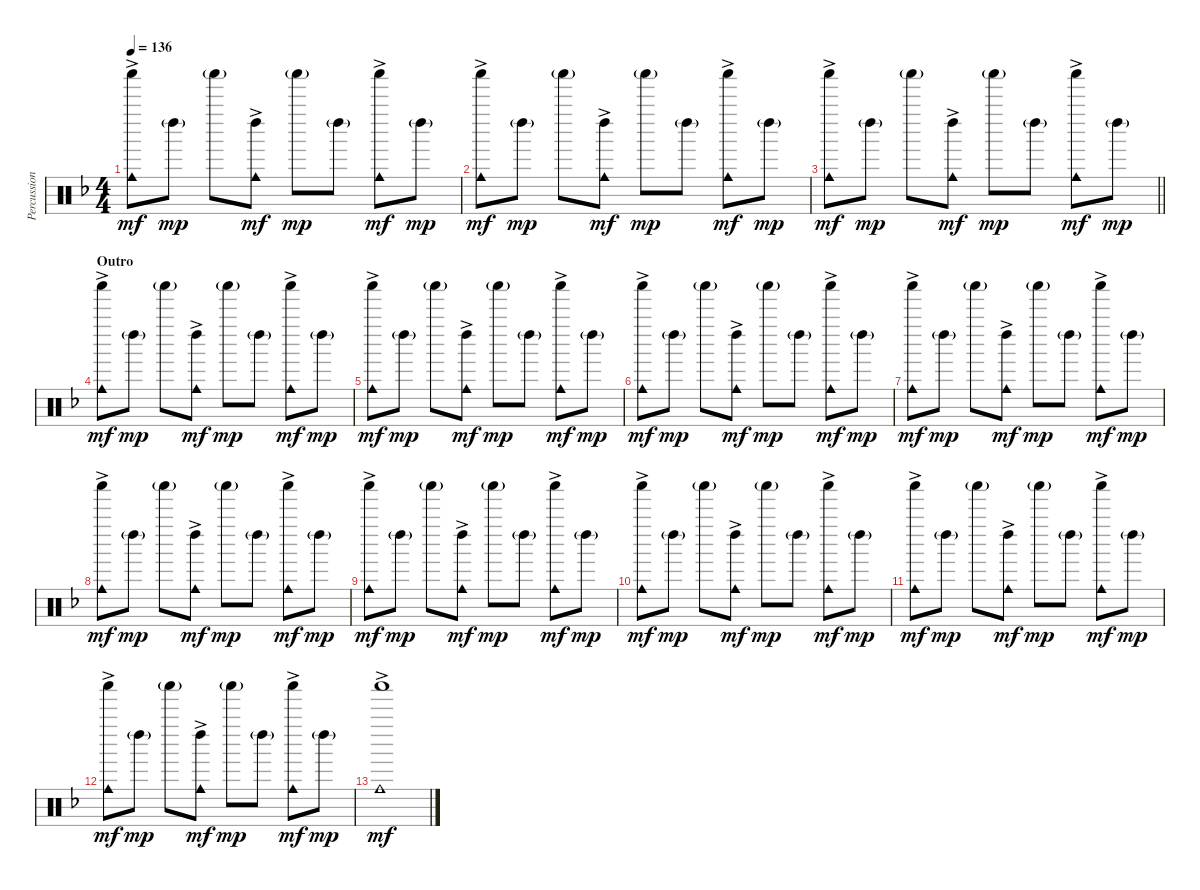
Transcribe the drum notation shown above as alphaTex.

\track ("Percussion" "Percussion") {instrument percussion}
\staff {score}
\articulation defaults
\ts (4 4)
\tempo 136
\clef neutral
\ks f
("Shaker (hit)"{ac} "Cowbell medium (hit)").8{dy mf} "Left Maraca (hit)"{g}.8{dy mp} "Shaker (hit)"{g}.8 ("Left Maraca (hit)"{ac} "Cowbell medium (hit)").8{dy mf} "Shaker (hit)"{g}.8{dy mp} "Left Maraca (hit)"{g}.8 ("Shaker (hit)"{ac} "Cowbell medium (hit)").8{dy mf} "Left Maraca (hit)"{g}.8{dy mp} |
("Shaker (hit)"{ac} "Cowbell medium (hit)").8{dy mf} "Left Maraca (hit)"{g}.8{dy mp} "Shaker (hit)"{g}.8 ("Left Maraca (hit)"{ac} "Cowbell medium (hit)").8{dy mf} "Shaker (hit)"{g}.8{dy mp} "Left Maraca (hit)"{g}.8 ("Shaker (hit)"{ac} "Cowbell medium (hit)").8{dy mf} "Left Maraca (hit)"{g}.8{dy mp} |
\barLineRight lightlight
("Shaker (hit)"{ac} "Cowbell medium (hit)").8{dy mf} "Left Maraca (hit)"{g}.8{dy mp} "Shaker (hit)"{g}.8 ("Left Maraca (hit)"{ac} "Cowbell medium (hit)").8{dy mf} "Shaker (hit)"{g}.8{dy mp} "Left Maraca (hit)"{g}.8 ("Shaker (hit)"{ac} "Cowbell medium (hit)").8{dy mf} "Left Maraca (hit)"{g}.8{dy mp} |
\section ("" "Outro")
("Shaker (hit)"{ac} "Cowbell medium (hit)").8{dy mf} "Left Maraca (hit)"{g}.8{dy mp} "Shaker (hit)"{g}.8 ("Left Maraca (hit)"{ac} "Cowbell medium (hit)").8{dy mf} "Shaker (hit)"{g}.8{dy mp} "Left Maraca (hit)"{g}.8 ("Shaker (hit)"{ac} "Cowbell medium (hit)").8{dy mf} "Left Maraca (hit)"{g}.8{dy mp} |
("Shaker (hit)"{ac} "Cowbell medium (hit)").8{dy mf} "Left Maraca (hit)"{g}.8{dy mp} "Shaker (hit)"{g}.8 ("Left Maraca (hit)"{ac} "Cowbell medium (hit)").8{dy mf} "Shaker (hit)"{g}.8{dy mp} "Left Maraca (hit)"{g}.8 ("Shaker (hit)"{ac} "Cowbell medium (hit)").8{dy mf} "Left Maraca (hit)"{g}.8{dy mp} |
("Shaker (hit)"{ac} "Cowbell medium (hit)").8{dy mf} "Left Maraca (hit)"{g}.8{dy mp} "Shaker (hit)"{g}.8 ("Left Maraca (hit)"{ac} "Cowbell medium (hit)").8{dy mf} "Shaker (hit)"{g}.8{dy mp} "Left Maraca (hit)"{g}.8 ("Shaker (hit)"{ac} "Cowbell medium (hit)").8{dy mf} "Left Maraca (hit)"{g}.8{dy mp} |
("Shaker (hit)"{ac} "Cowbell medium (hit)").8{dy mf} "Left Maraca (hit)"{g}.8{dy mp} "Shaker (hit)"{g}.8 ("Left Maraca (hit)"{ac} "Cowbell medium (hit)").8{dy mf} "Shaker (hit)"{g}.8{dy mp} "Left Maraca (hit)"{g}.8 ("Shaker (hit)"{ac} "Cowbell medium (hit)").8{dy mf} "Left Maraca (hit)"{g}.8{dy mp} |
("Shaker (hit)"{ac} "Cowbell medium (hit)").8{dy mf} "Left Maraca (hit)"{g}.8{dy mp} "Shaker (hit)"{g}.8 ("Left Maraca (hit)"{ac} "Cowbell medium (hit)").8{dy mf} "Shaker (hit)"{g}.8{dy mp} "Left Maraca (hit)"{g}.8 ("Shaker (hit)"{ac} "Cowbell medium (hit)").8{dy mf} "Left Maraca (hit)"{g}.8{dy mp} |
("Shaker (hit)"{ac} "Cowbell medium (hit)").8{dy mf} "Left Maraca (hit)"{g}.8{dy mp} "Shaker (hit)"{g}.8 ("Left Maraca (hit)"{ac} "Cowbell medium (hit)").8{dy mf} "Shaker (hit)"{g}.8{dy mp} "Left Maraca (hit)"{g}.8 ("Shaker (hit)"{ac} "Cowbell medium (hit)").8{dy mf} "Left Maraca (hit)"{g}.8{dy mp} |
("Shaker (hit)"{ac} "Cowbell medium (hit)").8{dy mf} "Left Maraca (hit)"{g}.8{dy mp} "Shaker (hit)"{g}.8 ("Left Maraca (hit)"{ac} "Cowbell medium (hit)").8{dy mf} "Shaker (hit)"{g}.8{dy mp} "Left Maraca (hit)"{g}.8 ("Shaker (hit)"{ac} "Cowbell medium (hit)").8{dy mf} "Left Maraca (hit)"{g}.8{dy mp} |
("Shaker (hit)"{ac} "Cowbell medium (hit)").8{dy mf} "Left Maraca (hit)"{g}.8{dy mp} "Shaker (hit)"{g}.8 ("Left Maraca (hit)"{ac} "Cowbell medium (hit)").8{dy mf} "Shaker (hit)"{g}.8{dy mp} "Left Maraca (hit)"{g}.8 ("Shaker (hit)"{ac} "Cowbell medium (hit)").8{dy mf} "Left Maraca (hit)"{g}.8{dy mp} |
("Shaker (hit)"{ac} "Cowbell medium (hit)").8{dy mf} "Left Maraca (hit)"{g}.8{dy mp} "Shaker (hit)"{g}.8 ("Left Maraca (hit)"{ac} "Cowbell medium (hit)").8{dy mf} "Shaker (hit)"{g}.8{dy mp} "Left Maraca (hit)"{g}.8 ("Shaker (hit)"{ac} "Cowbell medium (hit)").8{dy mf} "Left Maraca (hit)"{g}.8{dy mp} |
("Shaker (hit)"{ac} "Cowbell medium (hit)").1{dy mf}
